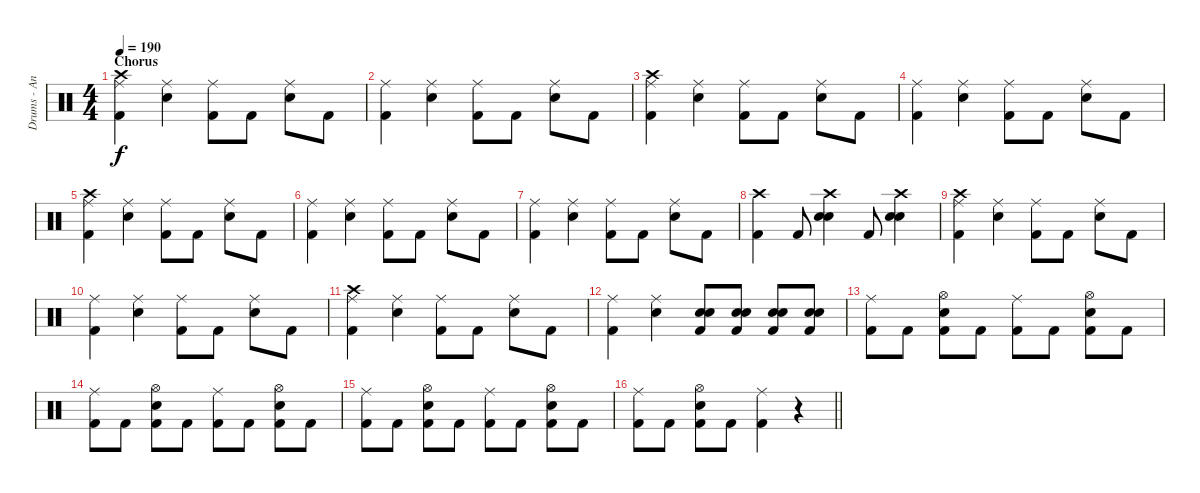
\track ("Drums - Anders Johansson" "Drums - An") {instrument percussion}
\staff {score}
\articulation defaults
\ts (4 4)
\section ("" "Chorus")
\tempo 190
\clef neutral
\ks c
("Ride (middle)" "Kick (hit) 2" "Crash high (hit)").4{dy f} ("Ride (middle)" "Snare (hit) 2").4 ("Ride (middle)" "Kick (hit) 2").8 "Kick (hit) 2".8 ("Ride (middle)" "Snare (hit) 2").8 "Kick (hit) 2".8 |
("Ride (middle)" "Kick (hit) 2").4 ("Ride (middle)" "Snare (hit) 2").4 ("Ride (middle)" "Kick (hit) 2").8 "Kick (hit) 2".8 ("Ride (middle)" "Snare (hit) 2").8 "Kick (hit) 2".8 |
("Ride (middle)" "Kick (hit) 2" "Crash high (hit)").4 ("Ride (middle)" "Snare (hit) 2").4 ("Ride (middle)" "Kick (hit) 2").8 "Kick (hit) 2".8 ("Ride (middle)" "Snare (hit) 2").8 "Kick (hit) 2".8 |
("Ride (middle)" "Kick (hit) 2").4 ("Ride (middle)" "Snare (hit) 2").4 ("Ride (middle)" "Kick (hit) 2").8 "Kick (hit) 2".8 ("Ride (middle)" "Snare (hit) 2").8 "Kick (hit) 2".8 |
("Ride (middle)" "Kick (hit) 2" "Crash high (hit)").4 ("Ride (middle)" "Snare (hit) 2").4 ("Ride (middle)" "Kick (hit) 2").8 "Kick (hit) 2".8 ("Ride (middle)" "Snare (hit) 2").8 "Kick (hit) 2".8 |
("Ride (middle)" "Kick (hit) 2").4 ("Ride (middle)" "Snare (hit) 2").4 ("Ride (middle)" "Kick (hit) 2").8 "Kick (hit) 2".8 ("Ride (middle)" "Snare (hit) 2").8 "Kick (hit) 2".8 |
("Ride (middle)" "Kick (hit) 2").4 ("Ride (middle)" "Snare (hit) 2").4 ("Ride (middle)" "Kick (hit) 2").8 "Kick (hit) 2".8 ("Ride (middle)" "Snare (hit) 2").8 "Kick (hit) 2".8 |
("Kick (hit) 2" "Crash high (hit)").4 "Kick (hit) 2".8 ("Electric Snare (hit)" "Snare (hit) 2" "Crash high (hit)").4 "Kick (hit) 2".8 ("Electric Snare (hit)" "Snare (hit) 2" "Crash high (hit)").4 |
("Ride (middle)" "Kick (hit) 2" "Crash high (hit)").4 ("Ride (middle)" "Snare (hit) 2").4 ("Ride (middle)" "Kick (hit) 2").8 "Kick (hit) 2".8 ("Ride (middle)" "Snare (hit) 2").8 "Kick (hit) 2".8 |
("Ride (middle)" "Kick (hit) 2").4 ("Ride (middle)" "Snare (hit) 2").4 ("Ride (middle)" "Kick (hit) 2").8 "Kick (hit) 2".8 ("Ride (middle)" "Snare (hit) 2").8 "Kick (hit) 2".8 |
("Ride (middle)" "Kick (hit) 2" "Crash high (hit)").4 ("Ride (middle)" "Snare (hit) 2").4 ("Ride (middle)" "Kick (hit) 2").8 "Kick (hit) 2".8 ("Ride (middle)" "Snare (hit) 2").8 "Kick (hit) 2".8 |
("Ride (middle)" "Kick (hit) 2").4 ("Ride (middle)" "Snare (hit) 2").4 ("Electric Snare (hit)" "Snare (hit) 2" "Kick (hit) 2").8 ("Electric Snare (hit)" "Snare (hit) 2" "Kick (hit) 2").8 ("Electric Snare (hit)" "Snare (hit) 2" "Kick (hit) 2").8 ("Electric Snare (hit)" "Snare (hit) 2" "Kick (hit) 2").8 |
("Ride (middle)" "Kick (hit) 2").8 "Kick (hit) 2".8 ("Hi-Hat (open)" "Snare (hit) 2" "Kick (hit) 2").8 "Kick (hit) 2".8 ("Ride (middle)" "Kick (hit) 2").8 "Kick (hit) 2".8 ("Hi-Hat (open)" "Snare (hit) 2" "Kick (hit) 2").8 "Kick (hit) 2".8 |
("Ride (middle)" "Kick (hit) 2").8 "Kick (hit) 2".8 ("Hi-Hat (open)" "Snare (hit) 2" "Kick (hit) 2").8 "Kick (hit) 2".8 ("Ride (middle)" "Kick (hit) 2").8 "Kick (hit) 2".8 ("Hi-Hat (open)" "Snare (hit) 2" "Kick (hit) 2").8 "Kick (hit) 2".8 |
("Ride (middle)" "Kick (hit) 2").8 "Kick (hit) 2".8 ("Hi-Hat (open)" "Snare (hit) 2" "Kick (hit) 2").8 "Kick (hit) 2".8 ("Ride (middle)" "Kick (hit) 2").8 "Kick (hit) 2".8 ("Hi-Hat (open)" "Snare (hit) 2" "Kick (hit) 2").8 "Kick (hit) 2".8 |
\barLineRight lightlight
("Ride (middle)" "Kick (hit) 2").8 "Kick (hit) 2".8 ("Hi-Hat (open)" "Snare (hit) 2" "Kick (hit) 2").8 "Kick (hit) 2".8 ("Ride (middle)" "Kick (hit) 2").4 r.4
